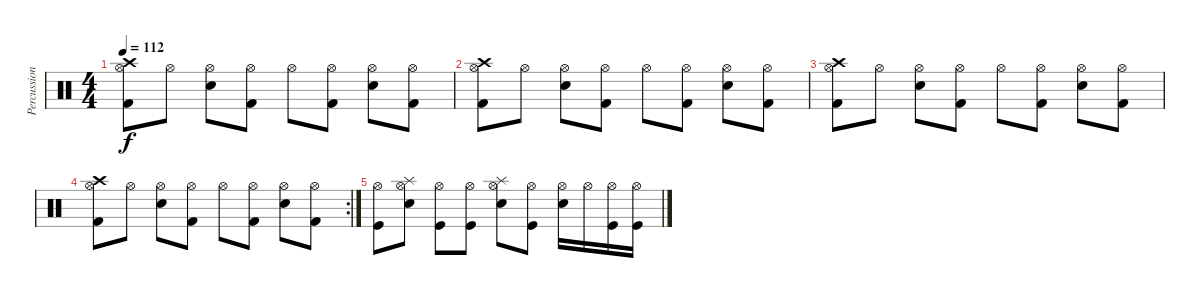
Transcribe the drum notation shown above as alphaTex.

\track ("Percussion" "Percussion") {instrument percussion}
\staff {score}
\articulation defaults
\ts (4 4)
\tempo 112
\clef neutral
\ks c
("Kick (hit) 2" "Hi-Hat (open)" "Crash high (hit)").8{dy f} "Hi-Hat (open)".8 ("Electric Snare (hit)" "Hi-Hat (open)").8 ("Kick (hit) 2" "Hi-Hat (open)").8 "Hi-Hat (open)".8 ("Kick (hit) 2" "Hi-Hat (open)").8 ("Electric Snare (hit)" "Hi-Hat (open)").8 ("Kick (hit) 2" "Hi-Hat (open)").8 |
("Kick (hit) 2" "Hi-Hat (open)" "Crash high (hit)").8 "Hi-Hat (open)".8 ("Electric Snare (hit)" "Hi-Hat (open)").8 ("Kick (hit) 2" "Hi-Hat (open)").8 "Hi-Hat (open)".8 ("Kick (hit) 2" "Hi-Hat (open)").8 ("Electric Snare (hit)" "Hi-Hat (open)").8 ("Kick (hit) 2" "Hi-Hat (open)").8 |
("Kick (hit) 2" "Hi-Hat (open)" "Crash high (hit)").8 "Hi-Hat (open)".8 ("Electric Snare (hit)" "Hi-Hat (open)").8 ("Kick (hit) 2" "Hi-Hat (open)").8 "Hi-Hat (open)".8 ("Kick (hit) 2" "Hi-Hat (open)").8 ("Electric Snare (hit)" "Hi-Hat (open)").8 ("Kick (hit) 2" "Hi-Hat (open)").8 |
\rc 2
("Kick (hit) 2" "Hi-Hat (open)" "Crash high (hit)").8 "Hi-Hat (open)".8 ("Electric Snare (hit)" "Hi-Hat (open)").8 ("Kick (hit) 2" "Hi-Hat (open)").8 "Hi-Hat (open)".8 ("Kick (hit) 2" "Hi-Hat (open)").8 ("Electric Snare (hit)" "Hi-Hat (open)").8 ("Kick (hit) 2" "Hi-Hat (open)").8 |
("Kick (hit)" "Hi-Hat (open)").8 ("Splash (hit)" "Snare (hit) 2" "Hi-Hat (open)").8 ("Kick (hit)" "Hi-Hat (open)").8 ("Kick (hit)" "Hi-Hat (open)").8 ("Splash (hit)" "Snare (hit) 2" "Hi-Hat (open)").8 ("Kick (hit)" "Hi-Hat (open)").8 ("Snare (hit) 2" "Hi-Hat (open)").16 "Hi-Hat (open)".16 ("Kick (hit)" "Hi-Hat (open)").16 ("Kick (hit)" "Hi-Hat (open)").16
